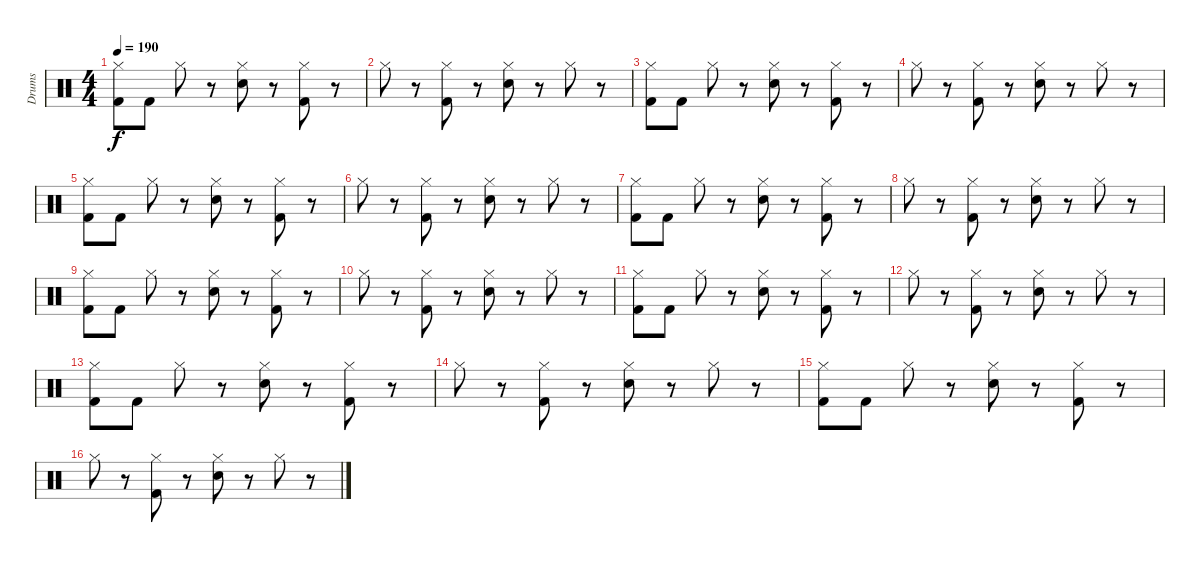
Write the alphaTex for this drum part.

\track ("Drums" "Drums") {instrument percussion}
\staff {score}
\articulation defaults
\ts (4 4)
\tempo 190
\clef neutral
\ks c
("Hi-Hat (closed)" "Kick (hit) 2").8{dy f} "Kick (hit) 2".8 "Hi-Hat (closed)".8 r.8 ("Hi-Hat (closed)" "Electric Snare (hit)").8 r.8 ("Hi-Hat (closed)" "Kick (hit) 2").8 r.8 |
"Hi-Hat (closed)".8 r.8 ("Hi-Hat (closed)" "Kick (hit) 2").8 r.8 ("Hi-Hat (closed)" "Electric Snare (hit)").8 r.8 "Hi-Hat (closed)".8 r.8 |
("Hi-Hat (closed)" "Kick (hit) 2").8 "Kick (hit) 2".8 "Hi-Hat (closed)".8 r.8 ("Hi-Hat (closed)" "Electric Snare (hit)").8 r.8 ("Hi-Hat (closed)" "Kick (hit) 2").8 r.8 |
"Hi-Hat (closed)".8 r.8 ("Hi-Hat (closed)" "Kick (hit) 2").8 r.8 ("Hi-Hat (closed)" "Electric Snare (hit)").8 r.8 "Hi-Hat (closed)".8 r.8 |
("Hi-Hat (closed)" "Kick (hit) 2").8 "Kick (hit) 2".8 "Hi-Hat (closed)".8 r.8 ("Hi-Hat (closed)" "Electric Snare (hit)").8 r.8 ("Hi-Hat (closed)" "Kick (hit) 2").8 r.8 |
"Hi-Hat (closed)".8 r.8 ("Hi-Hat (closed)" "Kick (hit) 2").8 r.8 ("Hi-Hat (closed)" "Electric Snare (hit)").8 r.8 "Hi-Hat (closed)".8 r.8 |
("Hi-Hat (closed)" "Kick (hit) 2").8 "Kick (hit) 2".8 "Hi-Hat (closed)".8 r.8 ("Hi-Hat (closed)" "Electric Snare (hit)").8 r.8 ("Hi-Hat (closed)" "Kick (hit) 2").8 r.8 |
"Hi-Hat (closed)".8 r.8 ("Hi-Hat (closed)" "Kick (hit) 2").8 r.8 ("Hi-Hat (closed)" "Electric Snare (hit)").8 r.8 "Hi-Hat (closed)".8 r.8 |
("Hi-Hat (closed)" "Kick (hit) 2").8 "Kick (hit) 2".8 "Hi-Hat (closed)".8 r.8 ("Hi-Hat (closed)" "Electric Snare (hit)").8 r.8 ("Hi-Hat (closed)" "Kick (hit) 2").8 r.8 |
"Hi-Hat (closed)".8 r.8 ("Hi-Hat (closed)" "Kick (hit) 2").8 r.8 ("Hi-Hat (closed)" "Electric Snare (hit)").8 r.8 "Hi-Hat (closed)".8 r.8 |
("Hi-Hat (closed)" "Kick (hit) 2").8 "Kick (hit) 2".8 "Hi-Hat (closed)".8 r.8 ("Hi-Hat (closed)" "Electric Snare (hit)").8 r.8 ("Hi-Hat (closed)" "Kick (hit) 2").8 r.8 |
"Hi-Hat (closed)".8 r.8 ("Hi-Hat (closed)" "Kick (hit) 2").8 r.8 ("Hi-Hat (closed)" "Electric Snare (hit)").8 r.8 "Hi-Hat (closed)".8 r.8 |
("Hi-Hat (closed)" "Kick (hit) 2").8 "Kick (hit) 2".8 "Hi-Hat (closed)".8 r.8 ("Hi-Hat (closed)" "Electric Snare (hit)").8 r.8 ("Hi-Hat (closed)" "Kick (hit) 2").8 r.8 |
"Hi-Hat (closed)".8 r.8 ("Hi-Hat (closed)" "Kick (hit) 2").8 r.8 ("Hi-Hat (closed)" "Electric Snare (hit)").8 r.8 "Hi-Hat (closed)".8 r.8 |
("Hi-Hat (closed)" "Kick (hit) 2").8 "Kick (hit) 2".8 "Hi-Hat (closed)".8 r.8 ("Hi-Hat (closed)" "Electric Snare (hit)").8 r.8 ("Hi-Hat (closed)" "Kick (hit) 2").8 r.8 |
"Hi-Hat (closed)".8 r.8 ("Hi-Hat (closed)" "Kick (hit) 2").8 r.8 ("Hi-Hat (closed)" "Electric Snare (hit)").8 r.8 "Hi-Hat (closed)".8 r.8
